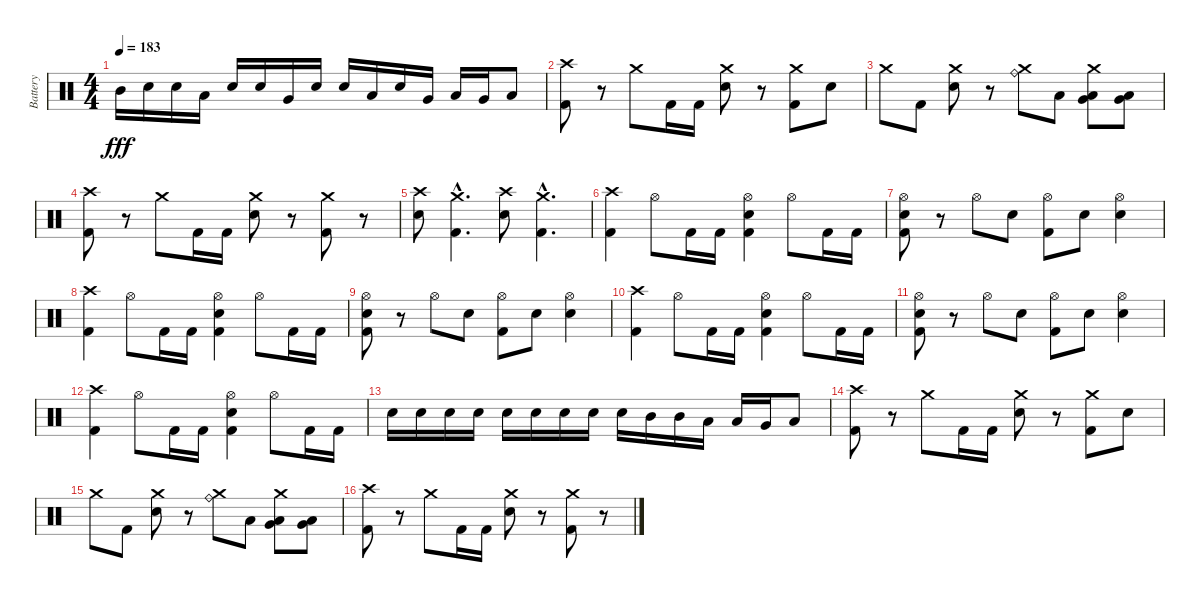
\track ("Battery" "Battery") {instrument percussion}
\staff {score}
\articulation defaults
\ts (4 4)
\tempo 183
\clef neutral
\ks c "Mid Tom (hit)".16{dy fff} "Electric Snare (hit)".16 "Electric Snare (hit)".16 "Low Tom (hit)".16 "Electric Snare (hit)".16 "Electric Snare (hit)".16 "Very Low Tom (hit)".16 "Electric Snare (hit)".16 "Electric Snare (hit)".16 "Low Floor Tom (hit)".16 "Electric Snare (hit)".16 "Very Low Tom (hit)".16 "Low Tom (hit)".16 "Very Low Tom (hit)".16 "Low Floor Tom (hit)".8
|
("Crash high (hit)" "Kick (hit) 2").8 r.8 "Crash medium (hit)".8 "Kick (hit) 2".16 "Kick (hit) 2".16 ("Crash medium (hit)" "Electric Snare (hit)").8 r.8 ("Crash medium (hit)" "Kick (hit) 2").8 "Electric Snare (hit)".8 |
"Crash medium (hit)".8 "Kick (hit) 2".8 ("Crash medium (hit)" "Electric Snare (hit)").8 r.8 ("Crash medium (hit)" "Ride (bell)").8 "Low Tom (hit)".8 ("Crash medium (hit)" "Very Low Tom (hit)" "Low Tom (hit)").8 ("Very Low Tom (hit)" "Low Floor Tom (hit)").8 |
("Crash high (hit)" "Kick (hit) 2").8 r.8 "Crash medium (hit)".8 "Kick (hit) 2".16 "Kick (hit) 2".16 ("Crash medium (hit)" "Electric Snare (hit)").8 r.8 ("Crash medium (hit)" "Kick (hit) 2").8 r.8 |
("Crash high (hit)" "Electric Snare (hit)").8 ("Crash medium (hit)"{hac} "Kick (hit) 2"{hac}).4{d} ("Crash high (hit)" "Electric Snare (hit)").8 ("Crash medium (hit)"{hac} "Kick (hit) 2"{hac}).4{d} |
("Crash high (hit)" "Kick (hit) 2").4 "Hi-Hat (open)".8 "Kick (hit) 2".16 "Kick (hit) 2".16 ("Hi-Hat (open)" "Electric Snare (hit)" "Kick (hit) 2").4 "Hi-Hat (open)".8 "Kick (hit) 2".16 "Kick (hit) 2".16 |
("Hi-Hat (open)" "Electric Snare (hit)" "Kick (hit) 2").8 r.8 "Hi-Hat (open)".8 "Electric Snare (hit)".8 ("Hi-Hat (open)" "Kick (hit) 2").8 "Electric Snare (hit)".8 ("Hi-Hat (open)" "Electric Snare (hit)").4 |
("Crash high (hit)" "Kick (hit) 2").4 "Hi-Hat (open)".8 "Kick (hit) 2".16 "Kick (hit) 2".16 ("Hi-Hat (open)" "Electric Snare (hit)" "Kick (hit) 2").4 "Hi-Hat (open)".8 "Kick (hit) 2".16 "Kick (hit) 2".16 |
("Hi-Hat (open)" "Electric Snare (hit)" "Kick (hit) 2").8 r.8 "Hi-Hat (open)".8 "Electric Snare (hit)".8 ("Hi-Hat (open)" "Kick (hit) 2").8 "Electric Snare (hit)".8 ("Hi-Hat (open)" "Electric Snare (hit)").4 |
("Crash high (hit)" "Kick (hit) 2").4 "Hi-Hat (open)".8 "Kick (hit) 2".16 "Kick (hit) 2".16 ("Hi-Hat (open)" "Electric Snare (hit)" "Kick (hit) 2").4 "Hi-Hat (open)".8 "Kick (hit) 2".16 "Kick (hit) 2".16 |
("Hi-Hat (open)" "Electric Snare (hit)" "Kick (hit) 2").8 r.8 "Hi-Hat (open)".8 "Electric Snare (hit)".8 ("Hi-Hat (open)" "Kick (hit) 2").8 "Electric Snare (hit)".8 ("Hi-Hat (open)" "Electric Snare (hit)").4 |
("Crash high (hit)" "Kick (hit) 2").4 "Hi-Hat (open)".8 "Kick (hit) 2".16 "Kick (hit) 2".16 ("Hi-Hat (open)" "Electric Snare (hit)" "Kick (hit) 2").4 "Hi-Hat (open)".8 "Kick (hit) 2".16 "Kick (hit) 2".16 |
"Electric Snare (hit)".16 "Electric Snare (hit)".16 "Electric Snare (hit)".16 "Electric Snare (hit)".16 "Electric Snare (hit)".16 "Electric Snare (hit)".16 "Electric Snare (hit)".16 "Electric Snare (hit)".16 "Electric Snare (hit)".16 "Mid Tom (hit)".16 "Mid Tom (hit)".16 "Low Tom (hit)".16 "Low Tom (hit)".16 "Very Low Tom (hit)".16 "Low Floor Tom (hit)".8 |
("Crash high (hit)" "Kick (hit) 2").8 r.8 "Crash medium (hit)".8 "Kick (hit) 2".16 "Kick (hit) 2".16 ("Crash medium (hit)" "Electric Snare (hit)").8 r.8 ("Crash medium (hit)" "Kick (hit) 2").8 "Electric Snare (hit)".8 |
"Crash medium (hit)".8 "Kick (hit) 2".8 ("Crash medium (hit)" "Electric Snare (hit)").8 r.8 ("Crash medium (hit)" "Ride (bell)").8 "Low Tom (hit)".8 ("Crash medium (hit)" "Very Low Tom (hit)" "Low Tom (hit)").8 ("Very Low Tom (hit)" "Low Floor Tom (hit)").8 |
("Crash high (hit)" "Kick (hit) 2").8 r.8 "Crash medium (hit)".8 "Kick (hit) 2".16 "Kick (hit) 2".16 ("Crash medium (hit)" "Electric Snare (hit)").8 r.8 ("Crash medium (hit)" "Kick (hit) 2").8 r.8
